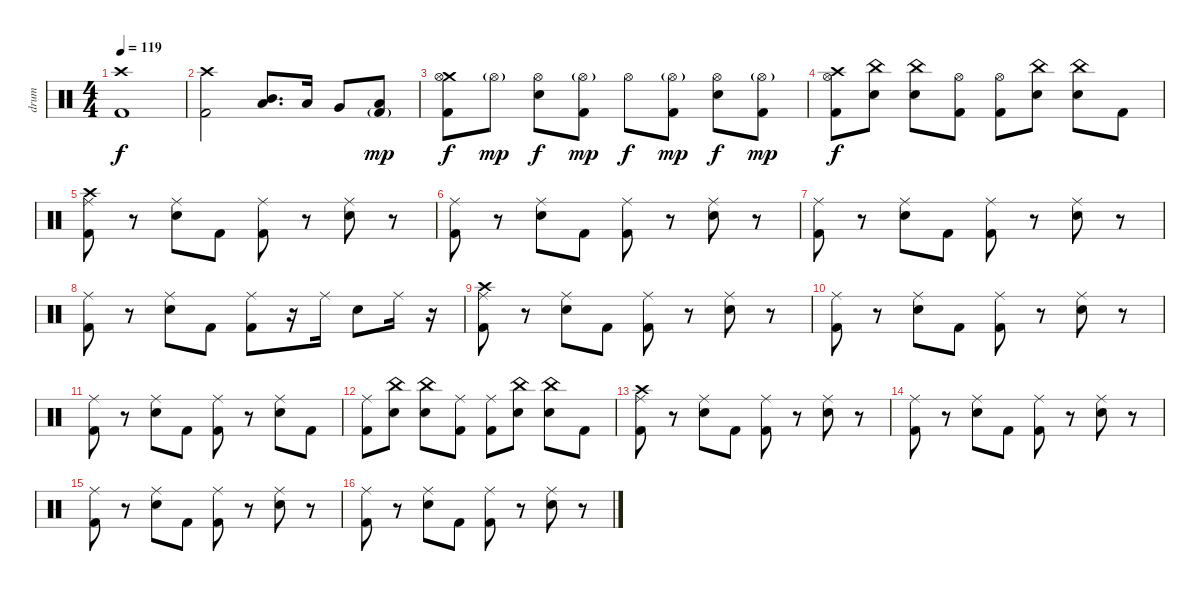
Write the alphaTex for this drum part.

\track ("drum" "drum") {instrument percussion}
\staff {score}
\articulation defaults
\ts (4 4)
\tempo 119
\clef neutral
\ks c
("Crash high (hit)" "Kick (hit) 2").1{dy f} |
("Crash high (hit)" "Kick (hit) 2").2 ("Low Tom (hit)" "Mid Tom (hit)").8{d bu 120} "Low Tom (hit)".16 "Very Low Tom (hit)".8 ("Low Floor Tom (hit)" "Kick (hit) 2"{g}).8{dy mp} |
("Crash medium (hit)" "Hi-Hat (open)" "Kick (hit) 2").8{dy f} "Hi-Hat (open)"{g}.8{dy mp} ("Hi-Hat (open)" "Electric Snare (hit)").8{dy f} ("Hi-Hat (open)"{g} "Kick (hit) 2").8{dy mp} "Hi-Hat (open)".8{dy f} ("Hi-Hat (open)"{g} "Kick (hit) 2").8{dy mp} ("Hi-Hat (open)" "Electric Snare (hit)").8{dy f} ("Hi-Hat (open)"{g} "Kick (hit) 2").8{dy mp} |
("Crash high (hit)" "Hi-Hat (open)" "Kick (hit) 2").8{dy f} ("China (hit)" "Electric Snare (hit)").8 ("China (hit)" "Electric Snare (hit)").8 ("Hi-Hat (open)" "Kick (hit) 2").8 ("Hi-Hat (open)" "Kick (hit) 2").8 ("China (hit)" "Electric Snare (hit)").8 ("China (hit)" "Electric Snare (hit)").8 "Kick (hit) 2".8 |
("Crash high (hit)" "Ride (middle)" "Kick (hit) 2").8 r.8 ("Ride (middle)" "Electric Snare (hit)").8 "Kick (hit) 2".8 ("Ride (middle)" "Kick (hit) 2").8 r.8 ("Ride (middle)" "Electric Snare (hit)").8 r.8 |
("Ride (middle)" "Kick (hit) 2").8 r.8 ("Ride (middle)" "Electric Snare (hit)").8 "Kick (hit) 2".8 ("Ride (middle)" "Kick (hit) 2").8 r.8 ("Ride (middle)" "Electric Snare (hit)").8 r.8 |
("Ride (middle)" "Kick (hit) 2").8 r.8 ("Ride (middle)" "Electric Snare (hit)").8 "Kick (hit) 2".8 ("Ride (middle)" "Kick (hit) 2").8 r.8 ("Ride (middle)" "Electric Snare (hit)").8 r.8 |
("Ride (middle)" "Kick (hit) 2").8 r.8 ("Ride (middle)" "Electric Snare (hit)").8 "Kick (hit) 2".8 ("Ride (middle)" "Kick (hit) 2").8 r.16 "Ride (middle)".16 "Electric Snare (hit)".8 "Ride (middle)".16 r.16 |
("Crash high (hit)" "Ride (middle)" "Kick (hit) 2").8 r.8 ("Ride (middle)" "Electric Snare (hit)").8 "Kick (hit) 2".8 ("Ride (middle)" "Kick (hit) 2").8 r.8 ("Ride (middle)" "Electric Snare (hit)").8 r.8 |
("Ride (middle)" "Kick (hit) 2").8 r.8 ("Ride (middle)" "Electric Snare (hit)").8 "Kick (hit) 2".8 ("Ride (middle)" "Kick (hit) 2").8 r.8 ("Ride (middle)" "Electric Snare (hit)").8 r.8 |
("Ride (middle)" "Kick (hit) 2").8 r.8 ("Ride (middle)" "Electric Snare (hit)").8 "Kick (hit) 2".8 ("Ride (middle)" "Kick (hit) 2").8 r.8 ("Ride (middle)" "Electric Snare (hit)").8 "Kick (hit) 2".8 |
("Ride (middle)" "Kick (hit) 2").8 ("China (hit)" "Electric Snare (hit)").8 ("China (hit)" "Electric Snare (hit)").8 ("Ride (middle)" "Kick (hit) 2").8 ("Ride (middle)" "Kick (hit) 2").8 ("China (hit)" "Electric Snare (hit)").8 ("China (hit)" "Electric Snare (hit)").8 "Kick (hit) 2".8 |
("Crash high (hit)" "Ride (middle)" "Kick (hit) 2").8 r.8 ("Ride (middle)" "Electric Snare (hit)").8 "Kick (hit) 2".8 ("Ride (middle)" "Kick (hit) 2").8 r.8 ("Ride (middle)" "Electric Snare (hit)").8 r.8 |
("Ride (middle)" "Kick (hit) 2").8 r.8 ("Ride (middle)" "Electric Snare (hit)").8 "Kick (hit) 2".8 ("Ride (middle)" "Kick (hit) 2").8 r.8 ("Ride (middle)" "Electric Snare (hit)").8 r.8 |
("Ride (middle)" "Kick (hit) 2").8 r.8 ("Ride (middle)" "Electric Snare (hit)").8 "Kick (hit) 2".8 ("Ride (middle)" "Kick (hit) 2").8 r.8 ("Ride (middle)" "Electric Snare (hit)").8 r.8 |
("Ride (middle)" "Kick (hit) 2").8 r.8 ("Ride (middle)" "Electric Snare (hit)").8 "Kick (hit) 2".8 ("Ride (middle)" "Kick (hit) 2").8 r.8 ("Ride (middle)" "Electric Snare (hit)").8 r.8
